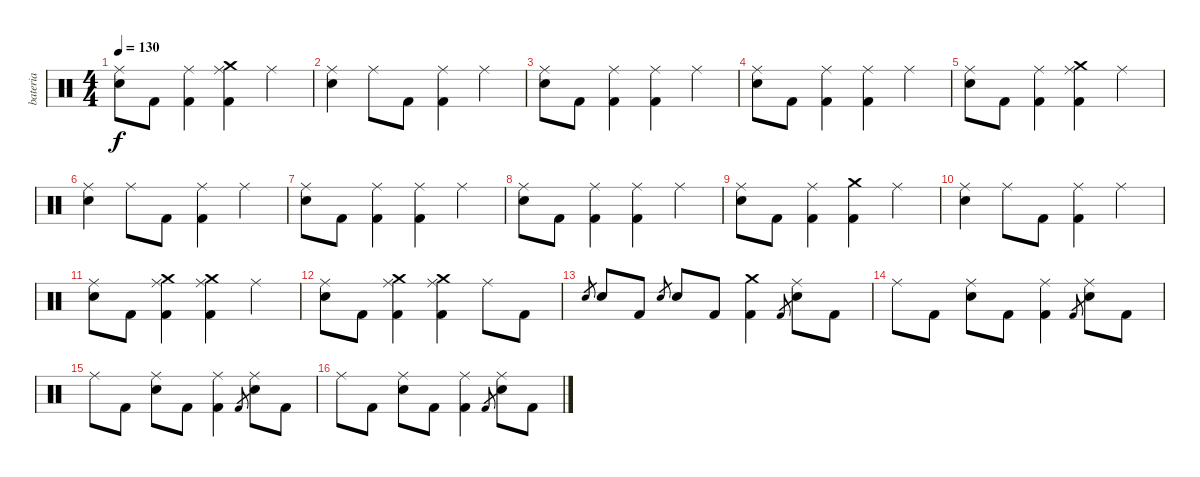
\track ("bateria" "bateria") {instrument percussion}
\staff {score}
\articulation defaults
\ts (4 4)
\tempo 130
\clef neutral
\ks c
("Ride (middle)" "Snare (hit) 2").8{dy f} "Kick (hit) 2".8 ("Ride (middle)" "Kick (hit) 2").4 ("Crash medium (hit)" "Ride (middle)" "Kick (hit) 2").4 "Ride (middle)".4 |
("Ride (middle)" "Snare (hit) 2").4 "Ride (middle)".8 "Kick (hit) 2".8 ("Ride (middle)" "Kick (hit) 2").4 "Ride (middle)".4 |
("Ride (middle)" "Snare (hit) 2").8 "Kick (hit) 2".8 ("Ride (middle)" "Kick (hit) 2").4 ("Ride (middle)" "Kick (hit) 2").4 "Ride (middle)".4 |
("Ride (middle)" "Snare (hit) 2").8 "Kick (hit) 2".8 ("Ride (middle)" "Kick (hit) 2").4 ("Ride (middle)" "Kick (hit) 2").4 "Ride (middle)".4 |
("Ride (middle)" "Snare (hit) 2").8 "Kick (hit) 2".8 ("Ride (middle)" "Kick (hit) 2").4 ("Crash medium (hit)" "Ride (middle)" "Kick (hit) 2").4 "Ride (middle)".4 |
("Ride (middle)" "Snare (hit) 2").4 "Ride (middle)".8 "Kick (hit) 2".8 ("Ride (middle)" "Kick (hit) 2").4 "Ride (middle)".4 |
("Ride (middle)" "Snare (hit) 2").8 "Kick (hit) 2".8 ("Ride (middle)" "Kick (hit) 2").4 ("Ride (middle)" "Kick (hit) 2").4 "Ride (middle)".4 |
("Ride (middle)" "Snare (hit) 2").8 "Kick (hit) 2".8 ("Ride (middle)" "Kick (hit) 2").4 ("Ride (middle)" "Kick (hit) 2").4 "Ride (middle)".4 |
("Ride (middle)" "Snare (hit) 2").8 "Kick (hit) 2".8 ("Ride (middle)" "Kick (hit) 2").4 ("Crash medium (hit)" "Kick (hit) 2").4 "Ride (middle)".4 |
("Ride (middle)" "Snare (hit) 2").4 "Ride (middle)".8 "Kick (hit) 2".8 ("Ride (middle)" "Kick (hit) 2").4 "Ride (middle)".4 |
("Ride (middle)" "Snare (hit) 2").8 "Kick (hit) 2".8 ("Crash medium (hit)" "Ride (middle)" "Kick (hit) 2").4 ("Crash medium (hit)" "Ride (middle)" "Kick (hit) 2").4 "Ride (middle)".4 |
("Ride (middle)" "Snare (hit) 2").8 "Kick (hit) 2".8 ("Crash medium (hit)" "Ride (middle)" "Kick (hit) 2").4 ("Crash medium (hit)" "Ride (middle)" "Kick (hit) 2").4 "Ride (middle)".8 "Kick (hit) 2".8 |
"Snare (hit) 2".8{gr} "Snare (hit) 2".8 "Kick (hit) 2".8 "Snare (hit) 2".8{gr} "Snare (hit) 2".8 "Kick (hit) 2".8 ("Crash medium (hit)" "Kick (hit) 2").4 "Kick (hit) 2".8{gr} ("Ride (middle)" "Snare (hit) 2").8 "Kick (hit) 2".8 |
"Ride (middle)".8 "Kick (hit) 2".8 ("Ride (middle)" "Snare (hit) 2").8 "Kick (hit) 2".8 ("Ride (middle)" "Kick (hit) 2").4 "Kick (hit) 2".8{gr} ("Ride (middle)" "Snare (hit) 2").8 "Kick (hit) 2".8 |
"Ride (middle)".8 "Kick (hit) 2".8 ("Ride (middle)" "Snare (hit) 2").8 "Kick (hit) 2".8 ("Ride (middle)" "Kick (hit) 2").4 "Kick (hit) 2".8{gr} ("Ride (middle)" "Snare (hit) 2").8 "Kick (hit) 2".8 |
"Ride (middle)".8 "Kick (hit) 2".8 ("Ride (middle)" "Snare (hit) 2").8 "Kick (hit) 2".8 ("Ride (middle)" "Kick (hit) 2").4 "Kick (hit) 2".8{gr} ("Ride (middle)" "Snare (hit) 2").8 "Kick (hit) 2".8
